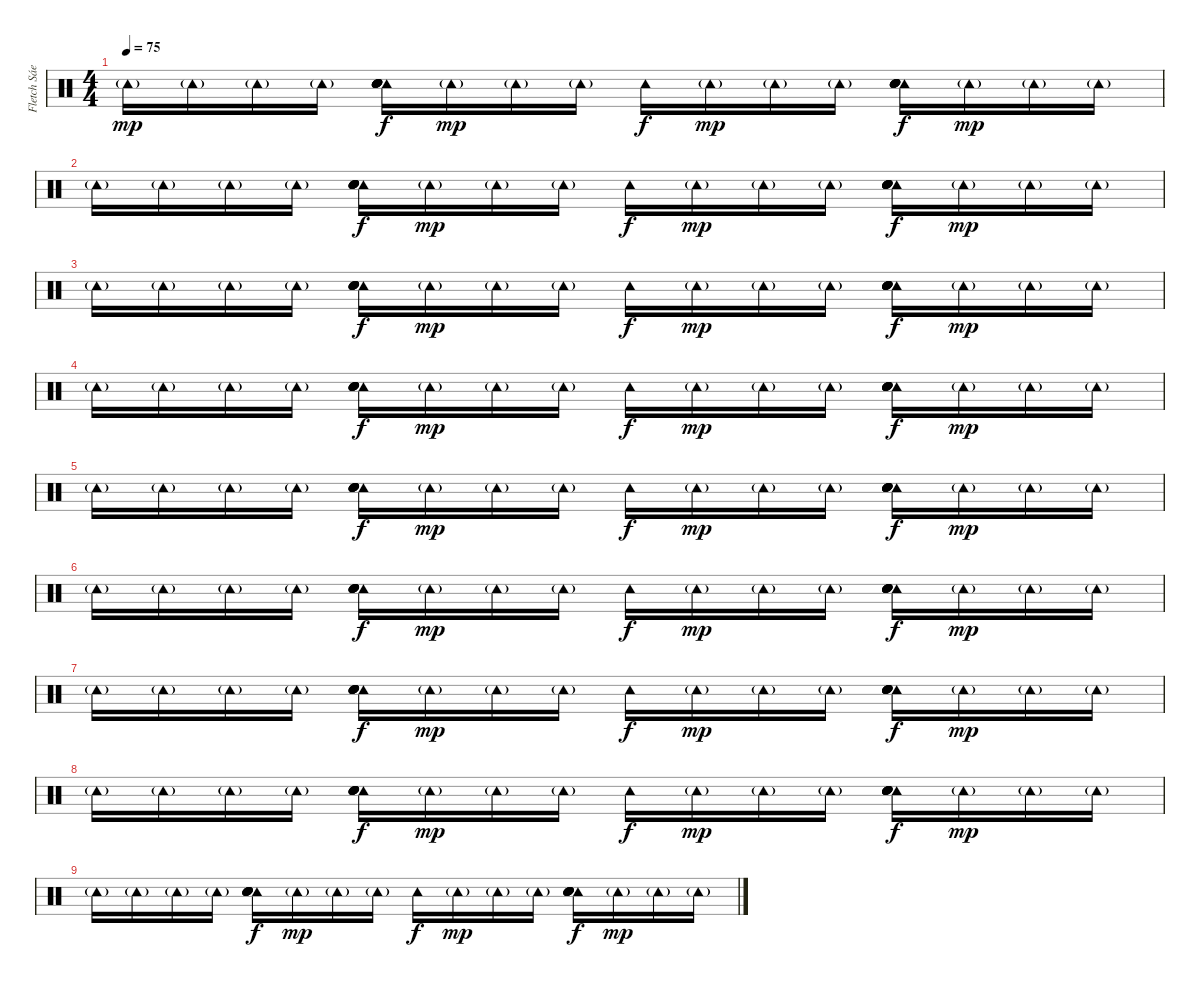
\track ("Fletch Sáenz" "Fletch Sáe") {instrument percussion}
\staff {score}
\articulation defaults
\ts (4 4)
\tempo 75
\clef neutral
\ks c "Tambourine (hit)"{g}.16{dy mp} "Tambourine (hit)"{g}.16 "Tambourine (hit)"{g}.16 "Tambourine (hit)"{g}.16
("Tambourine (hit)" "Hand Clap (hit)" "Hand Clap (hit)" "Hand Clap (hit)" "Hand Clap (hit)" "Hand Clap (hit)").16{dy f} "Tambourine (hit)"{g}.16{dy mp} "Tambourine (hit)"{g}.16 "Tambourine (hit)"{g}.16 "Tambourine (hit)".16{dy f} "Tambourine (hit)"{g}.16{dy mp} "Tambourine (hit)"{g}.16 "Tambourine (hit)"{g}.16 ("Tambourine (hit)" "Hand Clap (hit)" "Hand Clap (hit)" "Hand Clap (hit)" "Hand Clap (hit)" "Hand Clap (hit)").16{dy f} "Tambourine (hit)"{g}.16{dy mp} "Tambourine (hit)"{g}.16 "Tambourine (hit)"{g}.16 |
"Tambourine (hit)"{g}.16 "Tambourine (hit)"{g}.16 "Tambourine (hit)"{g}.16 "Tambourine (hit)"{g}.16 ("Tambourine (hit)" "Hand Clap (hit)" "Hand Clap (hit)" "Hand Clap (hit)" "Hand Clap (hit)" "Hand Clap (hit)").16{dy f} "Tambourine (hit)"{g}.16{dy mp} "Tambourine (hit)"{g}.16 "Tambourine (hit)"{g}.16 "Tambourine (hit)".16{dy f} "Tambourine (hit)"{g}.16{dy mp} "Tambourine (hit)"{g}.16 "Tambourine (hit)"{g}.16 ("Tambourine (hit)" "Hand Clap (hit)" "Hand Clap (hit)" "Hand Clap (hit)" "Hand Clap (hit)" "Hand Clap (hit)").16{dy f} "Tambourine (hit)"{g}.16{dy mp} "Tambourine (hit)"{g}.16 "Tambourine (hit)"{g}.16 |
"Tambourine (hit)"{g}.16 "Tambourine (hit)"{g}.16 "Tambourine (hit)"{g}.16 "Tambourine (hit)"{g}.16 ("Tambourine (hit)" "Hand Clap (hit)" "Hand Clap (hit)" "Hand Clap (hit)" "Hand Clap (hit)" "Hand Clap (hit)").16{dy f} "Tambourine (hit)"{g}.16{dy mp} "Tambourine (hit)"{g}.16 "Tambourine (hit)"{g}.16 "Tambourine (hit)".16{dy f} "Tambourine (hit)"{g}.16{dy mp} "Tambourine (hit)"{g}.16 "Tambourine (hit)"{g}.16 ("Tambourine (hit)" "Hand Clap (hit)" "Hand Clap (hit)" "Hand Clap (hit)" "Hand Clap (hit)" "Hand Clap (hit)").16{dy f} "Tambourine (hit)"{g}.16{dy mp} "Tambourine (hit)"{g}.16 "Tambourine (hit)"{g}.16 |
"Tambourine (hit)"{g}.16 "Tambourine (hit)"{g}.16 "Tambourine (hit)"{g}.16 "Tambourine (hit)"{g}.16 ("Tambourine (hit)" "Hand Clap (hit)" "Hand Clap (hit)" "Hand Clap (hit)" "Hand Clap (hit)" "Hand Clap (hit)").16{dy f} "Tambourine (hit)"{g}.16{dy mp} "Tambourine (hit)"{g}.16 "Tambourine (hit)"{g}.16 "Tambourine (hit)".16{dy f} "Tambourine (hit)"{g}.16{dy mp} "Tambourine (hit)"{g}.16 "Tambourine (hit)"{g}.16 ("Tambourine (hit)" "Hand Clap (hit)" "Hand Clap (hit)" "Hand Clap (hit)" "Hand Clap (hit)" "Hand Clap (hit)").16{dy f} "Tambourine (hit)"{g}.16{dy mp} "Tambourine (hit)"{g}.16 "Tambourine (hit)"{g}.16 |
"Tambourine (hit)"{g}.16 "Tambourine (hit)"{g}.16 "Tambourine (hit)"{g}.16 "Tambourine (hit)"{g}.16 ("Tambourine (hit)" "Hand Clap (hit)" "Hand Clap (hit)" "Hand Clap (hit)" "Hand Clap (hit)" "Hand Clap (hit)").16{dy f} "Tambourine (hit)"{g}.16{dy mp} "Tambourine (hit)"{g}.16 "Tambourine (hit)"{g}.16 "Tambourine (hit)".16{dy f} "Tambourine (hit)"{g}.16{dy mp} "Tambourine (hit)"{g}.16 "Tambourine (hit)"{g}.16 ("Tambourine (hit)" "Hand Clap (hit)" "Hand Clap (hit)" "Hand Clap (hit)" "Hand Clap (hit)" "Hand Clap (hit)").16{dy f} "Tambourine (hit)"{g}.16{dy mp} "Tambourine (hit)"{g}.16 "Tambourine (hit)"{g}.16 |
"Tambourine (hit)"{g}.16 "Tambourine (hit)"{g}.16 "Tambourine (hit)"{g}.16 "Tambourine (hit)"{g}.16 ("Tambourine (hit)" "Hand Clap (hit)" "Hand Clap (hit)" "Hand Clap (hit)" "Hand Clap (hit)" "Hand Clap (hit)").16{dy f} "Tambourine (hit)"{g}.16{dy mp} "Tambourine (hit)"{g}.16 "Tambourine (hit)"{g}.16 "Tambourine (hit)".16{dy f} "Tambourine (hit)"{g}.16{dy mp} "Tambourine (hit)"{g}.16 "Tambourine (hit)"{g}.16 ("Tambourine (hit)" "Hand Clap (hit)" "Hand Clap (hit)" "Hand Clap (hit)" "Hand Clap (hit)" "Hand Clap (hit)").16{dy f} "Tambourine (hit)"{g}.16{dy mp} "Tambourine (hit)"{g}.16 "Tambourine (hit)"{g}.16 |
"Tambourine (hit)"{g}.16 "Tambourine (hit)"{g}.16 "Tambourine (hit)"{g}.16 "Tambourine (hit)"{g}.16 ("Tambourine (hit)" "Hand Clap (hit)" "Hand Clap (hit)" "Hand Clap (hit)" "Hand Clap (hit)" "Hand Clap (hit)").16{dy f} "Tambourine (hit)"{g}.16{dy mp} "Tambourine (hit)"{g}.16 "Tambourine (hit)"{g}.16 "Tambourine (hit)".16{dy f} "Tambourine (hit)"{g}.16{dy mp} "Tambourine (hit)"{g}.16 "Tambourine (hit)"{g}.16 ("Tambourine (hit)" "Hand Clap (hit)" "Hand Clap (hit)" "Hand Clap (hit)" "Hand Clap (hit)" "Hand Clap (hit)").16{dy f} "Tambourine (hit)"{g}.16{dy mp} "Tambourine (hit)"{g}.16 "Tambourine (hit)"{g}.16 |
"Tambourine (hit)"{g}.16 "Tambourine (hit)"{g}.16 "Tambourine (hit)"{g}.16 "Tambourine (hit)"{g}.16 ("Tambourine (hit)" "Hand Clap (hit)" "Hand Clap (hit)" "Hand Clap (hit)" "Hand Clap (hit)" "Hand Clap (hit)").16{dy f} "Tambourine (hit)"{g}.16{dy mp} "Tambourine (hit)"{g}.16 "Tambourine (hit)"{g}.16 "Tambourine (hit)".16{dy f} "Tambourine (hit)"{g}.16{dy mp} "Tambourine (hit)"{g}.16 "Tambourine (hit)"{g}.16 ("Tambourine (hit)" "Hand Clap (hit)" "Hand Clap (hit)" "Hand Clap (hit)" "Hand Clap (hit)" "Hand Clap (hit)").16{dy f} "Tambourine (hit)"{g}.16{dy mp} "Tambourine (hit)"{g}.16 "Tambourine (hit)"{g}.16 |
"Tambourine (hit)"{g}.16 "Tambourine (hit)"{g}.16 "Tambourine (hit)"{g}.16 "Tambourine (hit)"{g}.16 ("Tambourine (hit)" "Hand Clap (hit)" "Hand Clap (hit)" "Hand Clap (hit)" "Hand Clap (hit)" "Hand Clap (hit)").16{dy f} "Tambourine (hit)"{g}.16{dy mp} "Tambourine (hit)"{g}.16 "Tambourine (hit)"{g}.16 "Tambourine (hit)".16{dy f} "Tambourine (hit)"{g}.16{dy mp} "Tambourine (hit)"{g}.16 "Tambourine (hit)"{g}.16 ("Tambourine (hit)" "Hand Clap (hit)" "Hand Clap (hit)" "Hand Clap (hit)" "Hand Clap (hit)" "Hand Clap (hit)").16{dy f} "Tambourine (hit)"{g}.16{dy mp} "Tambourine (hit)"{g}.16 "Tambourine (hit)"{g}.16
